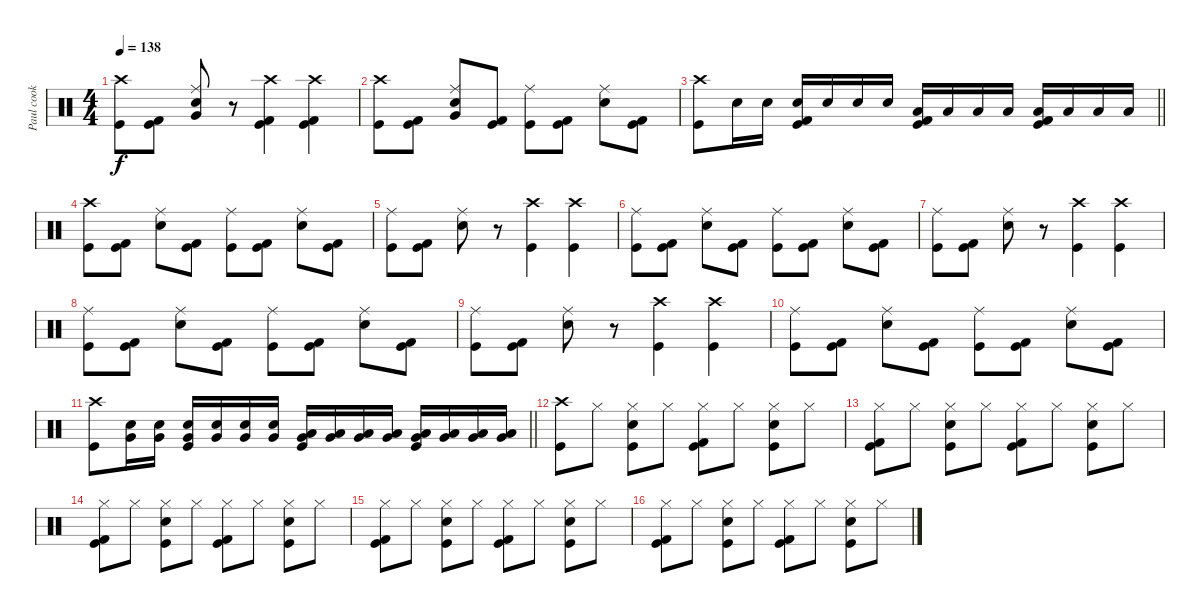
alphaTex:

\track ("Paul cook" "Paul cook") {instrument percussion}
\staff {score}
\articulation defaults
\ts (4 4)
\tempo 138
\clef neutral
\ks c
("Crash high (hit)" "Kick (hit)").8{dy f} ("Kick (hit) 2" "Kick (hit)").8 ("Very Low Tom (hit)" "Ride (middle)" "Snare (hit) 2").8 r.8 ("Kick (hit) 2" "Crash high (hit)" "Kick (hit)").4 ("Kick (hit) 2" "Crash high (hit)" "Kick (hit)").4 |
("Crash high (hit)" "Kick (hit)").8 ("Kick (hit) 2" "Kick (hit)").8 ("Very Low Tom (hit)" "Ride (middle)" "Snare (hit) 2").8 ("Kick (hit) 2" "Kick (hit)").8 ("Ride (middle)" "Kick (hit)").8 ("Kick (hit) 2" "Kick (hit)").8 ("Ride (middle)" "Snare (hit) 2").8 ("Kick (hit) 2" "Kick (hit)").8 |
\barLineRight lightlight
("Crash high (hit)" "Kick (hit)").8 "Snare (hit) 2".16 "Snare (hit) 2".16 ("Kick (hit) 2" "Snare (hit) 2" "Kick (hit)").16 "Snare (hit) 2".16 "Snare (hit) 2".16 "Snare (hit) 2".16 ("Kick (hit) 2" "Low Tom (hit)" "Kick (hit)").16 "Low Tom (hit)".16 "Low Tom (hit)".16 "Low Tom (hit)".16 ("Kick (hit) 2" "Low Tom (hit)" "Kick (hit)").16 "Low Tom (hit)".16 "Low Tom (hit)".16 "Low Tom (hit)".16 |
("Crash high (hit)" "Kick (hit)").8 ("Kick (hit) 2" "Kick (hit)").8 ("Ride (middle)" "Snare (hit) 2").8 ("Kick (hit) 2" "Kick (hit)").8 ("Ride (middle)" "Kick (hit)").8 ("Kick (hit) 2" "Kick (hit)").8 ("Ride (middle)" "Snare (hit) 2").8 ("Kick (hit) 2" "Kick (hit)").8 |
("Ride (middle)" "Kick (hit)").8 ("Kick (hit) 2" "Kick (hit)").8 ("Ride (middle)" "Snare (hit) 2").8 r.8 ("Crash high (hit)" "Kick (hit)").4 ("Crash high (hit)" "Kick (hit)").4 |
("Ride (middle)" "Kick (hit)").8 ("Kick (hit) 2" "Kick (hit)").8 ("Ride (middle)" "Snare (hit) 2").8 ("Kick (hit) 2" "Kick (hit)").8 ("Ride (middle)" "Kick (hit)").8 ("Kick (hit) 2" "Kick (hit)").8 ("Ride (middle)" "Snare (hit) 2").8 ("Kick (hit) 2" "Kick (hit)").8 |
("Ride (middle)" "Kick (hit)").8 ("Kick (hit) 2" "Kick (hit)").8 ("Ride (middle)" "Snare (hit) 2").8 r.8 ("Crash high (hit)" "Kick (hit)").4 ("Crash high (hit)" "Kick (hit)").4 |
("Ride (middle)" "Kick (hit)").8 ("Kick (hit) 2" "Kick (hit)").8 ("Ride (middle)" "Snare (hit) 2").8 ("Kick (hit) 2" "Kick (hit)").8 ("Ride (middle)" "Kick (hit)").8 ("Kick (hit) 2" "Kick (hit)").8 ("Ride (middle)" "Snare (hit) 2").8 ("Kick (hit) 2" "Kick (hit)").8 |
("Ride (middle)" "Kick (hit)").8 ("Kick (hit) 2" "Kick (hit)").8 ("Ride (middle)" "Snare (hit) 2").8 r.8 ("Crash high (hit)" "Kick (hit)").4 ("Crash high (hit)" "Kick (hit)").4 |
("Ride (middle)" "Kick (hit)").8 ("Kick (hit) 2" "Kick (hit)").8 ("Ride (middle)" "Snare (hit) 2").8 ("Kick (hit) 2" "Kick (hit)").8 ("Ride (middle)" "Kick (hit)").8 ("Kick (hit) 2" "Kick (hit)").8 ("Ride (middle)" "Snare (hit) 2").8 ("Kick (hit) 2" "Kick (hit)").8 |
\barLineRight lightlight
("Crash high (hit)" "Kick (hit)").8 ("Very Low Tom (hit)" "Snare (hit) 2").16 ("Very Low Tom (hit)" "Snare (hit) 2").16 ("Very Low Tom (hit)" "Snare (hit) 2" "Kick (hit)").16 ("Very Low Tom (hit)" "Snare (hit) 2").16 ("Very Low Tom (hit)" "Snare (hit) 2").16 ("Very Low Tom (hit)" "Snare (hit) 2").16 ("Very Low Tom (hit)" "Low Tom (hit)" "Kick (hit)").16 ("Very Low Tom (hit)" "Low Tom (hit)").16 ("Very Low Tom (hit)" "Low Tom (hit)").16 ("Very Low Tom (hit)" "Low Tom (hit)").16 ("Very Low Tom (hit)" "Low Tom (hit)" "Kick (hit)").16 ("Very Low Tom (hit)" "Low Tom (hit)").16 ("Very Low Tom (hit)" "Low Tom (hit)").16 ("Very Low Tom (hit)" "Low Tom (hit)").16 |
("Crash high (hit)" "Kick (hit)").8 "Hi-Hat (closed)".8 ("Hi-Hat (closed)" "Snare (hit) 2" "Kick (hit)").8 "Hi-Hat (closed)".8 ("Kick (hit) 2" "Hi-Hat (closed)" "Kick (hit)").8 "Hi-Hat (closed)".8 ("Hi-Hat (closed)" "Snare (hit) 2" "Kick (hit)").8 "Hi-Hat (closed)".8 |
("Kick (hit) 2" "Hi-Hat (closed)" "Kick (hit)").8 "Hi-Hat (closed)".8 ("Hi-Hat (closed)" "Snare (hit) 2" "Kick (hit)").8 "Hi-Hat (closed)".8 ("Kick (hit) 2" "Hi-Hat (closed)" "Kick (hit)").8 "Hi-Hat (closed)".8 ("Hi-Hat (closed)" "Snare (hit) 2" "Kick (hit)").8 "Hi-Hat (closed)".8 |
("Kick (hit) 2" "Hi-Hat (closed)" "Kick (hit)").8 "Hi-Hat (closed)".8 ("Hi-Hat (closed)" "Snare (hit) 2" "Kick (hit)").8 "Hi-Hat (closed)".8 ("Kick (hit) 2" "Hi-Hat (closed)" "Kick (hit)").8 "Hi-Hat (closed)".8 ("Hi-Hat (closed)" "Snare (hit) 2" "Kick (hit)").8 "Hi-Hat (closed)".8 |
("Kick (hit) 2" "Hi-Hat (closed)" "Kick (hit)").8 "Hi-Hat (closed)".8 ("Hi-Hat (closed)" "Snare (hit) 2" "Kick (hit)").8 "Hi-Hat (closed)".8 ("Kick (hit) 2" "Hi-Hat (closed)" "Kick (hit)").8 "Hi-Hat (closed)".8 ("Hi-Hat (closed)" "Snare (hit) 2" "Kick (hit)").8 "Hi-Hat (closed)".8 |
("Kick (hit) 2" "Hi-Hat (closed)" "Kick (hit)").8 "Hi-Hat (closed)".8 ("Hi-Hat (closed)" "Snare (hit) 2" "Kick (hit)").8 "Hi-Hat (closed)".8 ("Kick (hit) 2" "Hi-Hat (closed)" "Kick (hit)").8 "Hi-Hat (closed)".8 ("Hi-Hat (closed)" "Snare (hit) 2" "Kick (hit)").8 "Hi-Hat (closed)".8
